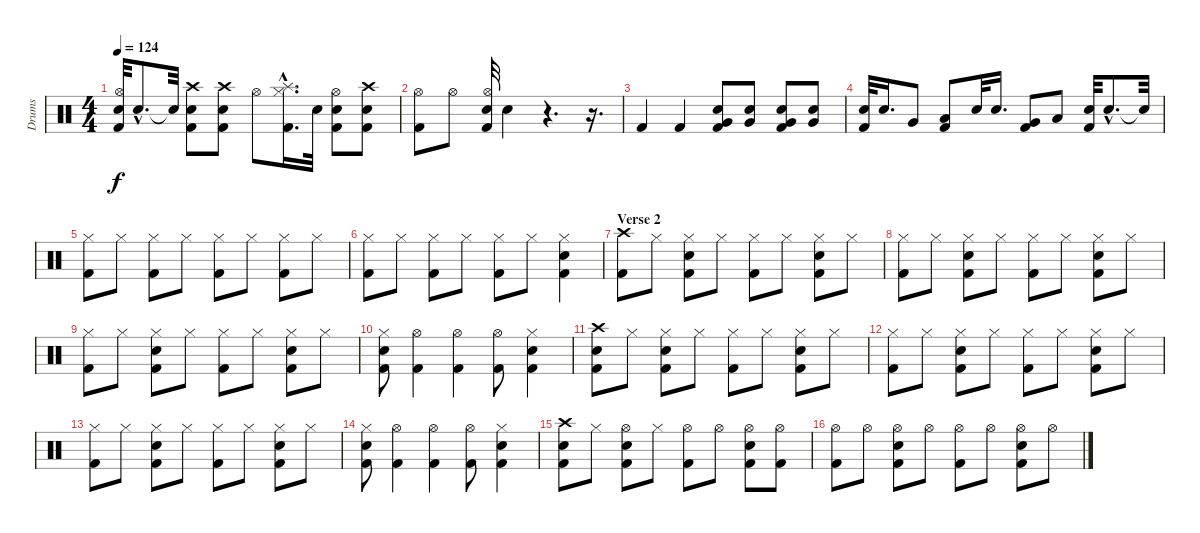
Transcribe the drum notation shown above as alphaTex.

\track ("Drums" "Drums") {instrument percussion}
\staff {score}
\articulation defaults
\ts (4 4)
\tempo 124
\clef neutral
\ks c
("Kick (hit) 2" "Hi-Hat (open)" "Snare (hit) 2").32{dy f} "Snare (hit) 2"{hac}.8{d} "Snare (hit)"{t}.32 ("Crash high (hit)" "Kick (hit) 2" "Snare (hit) 2").8 ("Crash high (hit)" "Kick (hit) 2" "Snare (hit) 2").8 "Hi-Hat (open)".8 ("Kick (hit) 2"{hac} "Hi-Hat (closed)" "Splash (hit)").16{d} "Snare (hit) 2".32 ("Hi-Hat (open)" "Kick (hit) 2" "Snare (hit) 2").8 ("Snare (hit) 2" "Crash high (hit)" "Kick (hit) 2").8 |
("Kick (hit) 2" "Hi-Hat (open)").8 "Hi-Hat (open)".8 ("Snare (hit) 2" "Hi-Hat (open)" "Kick (hit) 2").32 "Snare (hit) 2".4 r.4{d} r.16{d} |
"Kick (hit) 2".4 "Kick (hit) 2".4 ("Very Low Tom (hit)" "Kick (hit) 2" "Snare (hit) 2").8 ("Snare (hit) 2" "Very Low Tom (hit)").8 ("Very Low Tom (hit)" "Kick (hit) 2" "Snare (hit) 2").8 ("Very Low Tom (hit)" "Snare (hit) 2").8 |
("Snare (hit) 2" "Kick (hit) 2").32 "Snare (hit) 2".16{d} "Very Low Tom (hit)".8 ("Low Floor Tom (hit)" "Kick (hit) 2").8 "Snare (hit) 2".32 "Snare (hit) 2".16{d} ("Very Low Tom (hit)" "Kick (hit) 2").8 "Low Floor Tom (hit)".8 ("Kick (hit) 2" "Snare (hit) 2").32 "Snare (hit) 2"{hac}.8{d} "Snare (hit)"{t}.32 |
("Kick (hit) 2" "Hi-Hat (closed)").8 "Hi-Hat (closed)".8 ("Kick (hit) 2" "Hi-Hat (closed)").8 "Hi-Hat (closed)".8 ("Kick (hit) 2" "Hi-Hat (closed)").8 "Hi-Hat (closed)".8 ("Kick (hit) 2" "Hi-Hat (closed)").8 "Hi-Hat (closed)".8 |
("Hi-Hat (closed)" "Kick (hit) 2").8 "Hi-Hat (closed)".8 ("Kick (hit) 2" "Hi-Hat (closed)").8 "Hi-Hat (closed)".8 ("Kick (hit) 2" "Hi-Hat (closed)").8 "Hi-Hat (closed)".8 ("Kick (hit) 2" "Snare (hit) 2" "Hi-Hat (closed)").4 |
\section ("" "Verse 2")
("Crash high (hit)" "Kick (hit) 2").8 "Hi-Hat (closed)".8 ("Kick (hit) 2" "Hi-Hat (closed)" "Snare (hit) 2").8 "Hi-Hat (closed)".8 ("Hi-Hat (closed)" "Kick (hit) 2").8 "Hi-Hat (closed)".8 ("Kick (hit) 2" "Snare (hit) 2" "Hi-Hat (closed)").8 "Hi-Hat (closed)".8 |
("Hi-Hat (closed)" "Kick (hit) 2").8 "Hi-Hat (closed)".8 ("Kick (hit) 2" "Hi-Hat (closed)" "Snare (hit) 2").8 "Hi-Hat (closed)".8 ("Kick (hit) 2" "Hi-Hat (closed)").8 "Hi-Hat (closed)".8 ("Hi-Hat (closed)" "Kick (hit) 2" "Snare (hit) 2").8 "Hi-Hat (closed)".8 |
("Kick (hit) 2" "Hi-Hat (closed)").8 "Hi-Hat (closed)".8 ("Snare (hit) 2" "Hi-Hat (closed)" "Kick (hit) 2").8 "Hi-Hat (closed)".8 ("Kick (hit) 2" "Hi-Hat (closed)").8 "Hi-Hat (closed)".8 ("Kick (hit) 2" "Hi-Hat (closed)" "Snare (hit) 2").8 "Hi-Hat (closed)".8 |
("Snare (hit) 2" "Hi-Hat (closed)" "Kick (hit) 2").8 ("Kick (hit) 2" "Hi-Hat (open)").4 ("Kick (hit) 2" "Hi-Hat (open)").4 ("Kick (hit) 2" "Hi-Hat (open)").8 ("Snare (hit) 2" "Kick (hit) 2" "Hi-Hat (closed)").4 |
("Crash high (hit)" "Kick (hit) 2" "Snare (hit) 2").8 "Hi-Hat (closed)".8 ("Hi-Hat (closed)" "Kick (hit) 2" "Snare (hit) 2").8 "Hi-Hat (closed)".8 ("Kick (hit) 2" "Hi-Hat (closed)").8 "Hi-Hat (closed)".8 ("Kick (hit) 2" "Hi-Hat (closed)" "Snare (hit) 2").8 "Hi-Hat (closed)".8 |
("Hi-Hat (closed)" "Kick (hit) 2").8 "Hi-Hat (closed)".8 ("Kick (hit) 2" "Hi-Hat (closed)" "Snare (hit) 2").8 "Hi-Hat (closed)".8 ("Hi-Hat (closed)" "Kick (hit) 2").8 "Hi-Hat (closed)".8 ("Kick (hit) 2" "Hi-Hat (closed)" "Snare (hit) 2").8 "Hi-Hat (closed)".8 |
("Hi-Hat (closed)" "Kick (hit) 2").8 "Hi-Hat (closed)".8 ("Snare (hit) 2" "Kick (hit) 2" "Hi-Hat (closed)").8 "Hi-Hat (closed)".8 ("Kick (hit) 2" "Hi-Hat (closed)").8 "Hi-Hat (closed)".8 ("Snare (hit) 2" "Hi-Hat (closed)" "Kick (hit) 2").8 "Hi-Hat (closed)".8 |
("Snare (hit) 2" "Hi-Hat (closed)" "Kick (hit) 2").8 ("Kick (hit) 2" "Hi-Hat (open)").4 ("Kick (hit) 2" "Hi-Hat (open)").4 ("Kick (hit) 2" "Hi-Hat (open)").8 ("Snare (hit) 2" "Kick (hit) 2" "Hi-Hat (closed)").4 |
("Crash high (hit)" "Kick (hit) 2" "Snare (hit) 2").8 "Hi-Hat (closed)".8 ("Kick (hit) 2" "Hi-Hat (open)" "Snare (hit) 2").8 "Hi-Hat (closed)".8 ("Kick (hit) 2" "Hi-Hat (open)").8 "Hi-Hat (open)".8 ("Snare (hit) 2" "Hi-Hat (open)" "Kick (hit) 2").8 ("Hi-Hat (open)" "Kick (hit) 2").8 |
("Hi-Hat (open)" "Kick (hit) 2").8 "Hi-Hat (open)".8 ("Kick (hit) 2" "Snare (hit) 2" "Hi-Hat (open)").8 "Hi-Hat (open)".8 ("Kick (hit) 2" "Hi-Hat (open)").8 "Hi-Hat (open)".8 ("Hi-Hat (open)" "Snare (hit) 2" "Kick (hit) 2").8 "Hi-Hat (open)".8
